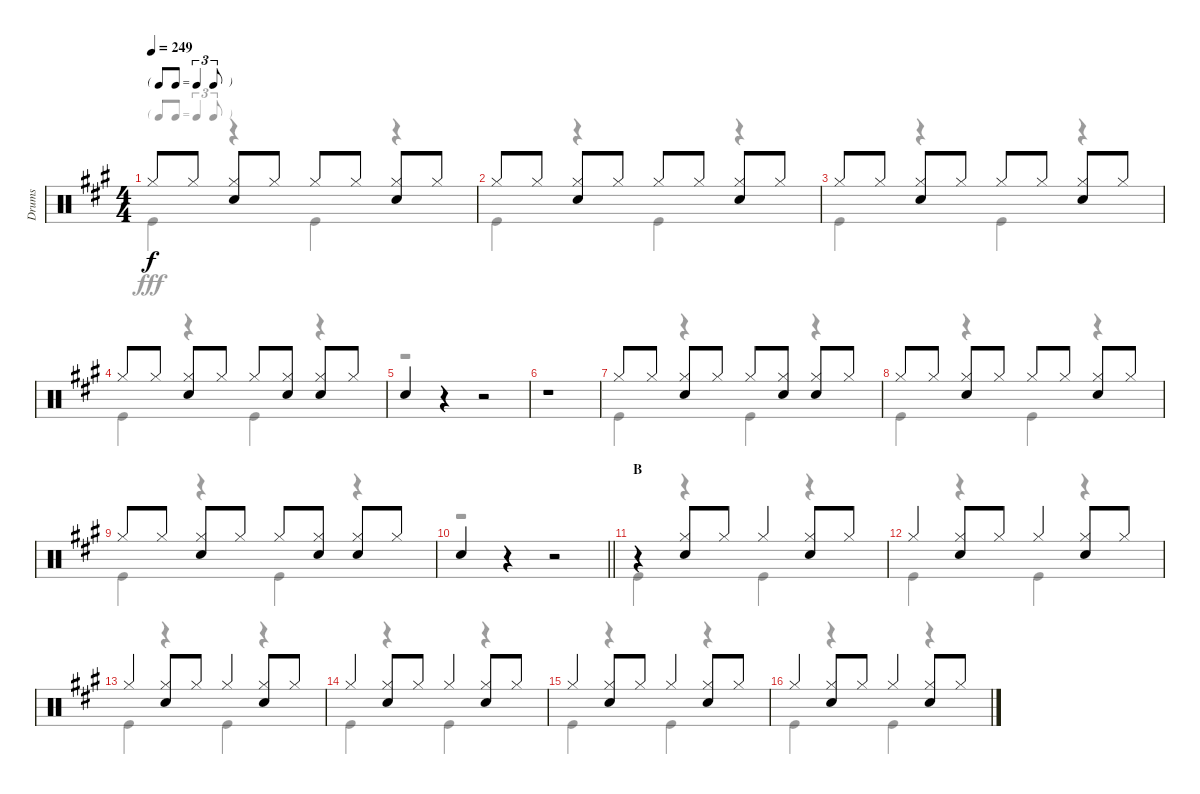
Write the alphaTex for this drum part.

\track ("Drums" "Drums") {instrument percussion}
\staff {score}
\articulation defaults
\voice
\ts (4 4)
\tf triplet8th
\tempo 249
\clef neutral
\ks a "Hi-Hat (closed)".8{dy f} "Hi-Hat (closed)".8
("Hi-Hat (closed)" "Snare (hit) 2").8 "Hi-Hat (closed)".8 "Hi-Hat (closed)".8 "Hi-Hat (closed)".8 ("Hi-Hat (closed)" "Snare (hit) 2").8 "Hi-Hat (closed)".8 |
"Hi-Hat (closed)".8 "Hi-Hat (closed)".8 ("Hi-Hat (closed)" "Snare (hit) 2").8 "Hi-Hat (closed)".8 "Hi-Hat (closed)".8 "Hi-Hat (closed)".8 ("Hi-Hat (closed)" "Snare (hit) 2").8 "Hi-Hat (closed)".8 |
"Hi-Hat (closed)".8 "Hi-Hat (closed)".8 ("Hi-Hat (closed)" "Snare (hit) 2").8 "Hi-Hat (closed)".8 "Hi-Hat (closed)".8 "Hi-Hat (closed)".8 ("Hi-Hat (closed)" "Snare (hit) 2").8 "Hi-Hat (closed)".8 |
"Hi-Hat (closed)".8 "Hi-Hat (closed)".8 ("Hi-Hat (closed)" "Snare (hit) 2").8 "Hi-Hat (closed)".8 "Hi-Hat (closed)".8 ("Hi-Hat (closed)" "Snare (hit) 2").8 ("Hi-Hat (closed)" "Snare (hit) 2").8 "Hi-Hat (closed)".8 |
"Snare (hit) 2".4 r.4 r.2 |
r.1 |
"Hi-Hat (closed)".8 "Hi-Hat (closed)".8 ("Hi-Hat (closed)" "Snare (hit) 2").8 "Hi-Hat (closed)".8 "Hi-Hat (closed)".8 ("Hi-Hat (closed)" "Snare (hit) 2").8 ("Hi-Hat (closed)" "Snare (hit) 2").8 "Hi-Hat (closed)".8 |
"Hi-Hat (closed)".8 "Hi-Hat (closed)".8 ("Hi-Hat (closed)" "Snare (hit) 2").8 "Hi-Hat (closed)".8 "Hi-Hat (closed)".8 "Hi-Hat (closed)".8 ("Hi-Hat (closed)" "Snare (hit) 2").8 "Hi-Hat (closed)".8 |
"Hi-Hat (closed)".8 "Hi-Hat (closed)".8 ("Hi-Hat (closed)" "Snare (hit) 2").8 "Hi-Hat (closed)".8 "Hi-Hat (closed)".8 ("Hi-Hat (closed)" "Snare (hit) 2").8 ("Hi-Hat (closed)" "Snare (hit) 2").8 "Hi-Hat (closed)".8 |
\barLineRight lightlight "Snare (hit) 2".4
r.4 r.2 |
\section ("" "B")
r.4 ("Hi-Hat (closed)" "Snare (hit) 2").8 "Hi-Hat (closed)".8 "Hi-Hat (closed)".4 ("Hi-Hat (closed)" "Snare (hit) 2").8 "Hi-Hat (closed)".8 |
"Hi-Hat (closed)".4 ("Hi-Hat (closed)" "Snare (hit) 2").8 "Hi-Hat (closed)".8 "Hi-Hat (closed)".4 ("Hi-Hat (closed)" "Snare (hit) 2").8 "Hi-Hat (closed)".8 |
"Hi-Hat (closed)".4 ("Hi-Hat (closed)" "Snare (hit) 2").8 "Hi-Hat (closed)".8 "Hi-Hat (closed)".4 ("Hi-Hat (closed)" "Snare (hit) 2").8 "Hi-Hat (closed)".8 |
"Hi-Hat (closed)".4 ("Hi-Hat (closed)" "Snare (hit) 2").8 "Hi-Hat (closed)".8 "Hi-Hat (closed)".4 ("Hi-Hat (closed)" "Snare (hit) 2").8 "Hi-Hat (closed)".8 |
"Hi-Hat (closed)".4 ("Hi-Hat (closed)" "Snare (hit) 2").8 "Hi-Hat (closed)".8 "Hi-Hat (closed)".4 ("Hi-Hat (closed)" "Snare (hit) 2").8 "Hi-Hat (closed)".8 |
"Hi-Hat (closed)".4 ("Hi-Hat (closed)" "Snare (hit) 2").8 "Hi-Hat (closed)".8 "Hi-Hat (closed)".4 ("Hi-Hat (closed)" "Snare (hit) 2").8 "Hi-Hat (closed)".8
\voice
\clef neutral
\ottava regular
\simile none
\ks a "Kick (hit)".4{dy fff}
r.4 "Kick (hit)".4 r.4 |
"Kick (hit)".4 r.4 "Kick (hit)".4 r.4 |
"Kick (hit)".4 r.4 "Kick (hit)".4 r.4 |
"Kick (hit)".4 r.4 "Kick (hit)".4 r.4 |
r.1 |
r.1 |
"Kick (hit)".4 r.4 "Kick (hit)".4 r.4 |
"Kick (hit)".4 r.4 "Kick (hit)".4 r.4 |
"Kick (hit)".4 r.4 "Kick (hit)".4 r.4 |
\barLineRight lightlight
r.1 |
"Kick (hit)".4 r.4 "Kick (hit)".4 r.4 |
"Kick (hit)".4 r.4 "Kick (hit)".4 r.4 |
"Kick (hit)".4 r.4 "Kick (hit)".4 r.4 |
"Kick (hit)".4 r.4 "Kick (hit)".4 r.4 |
"Kick (hit)".4 r.4 "Kick (hit)".4 r.4 |
"Kick (hit)".4 r.4 "Kick (hit)".4 r.4
